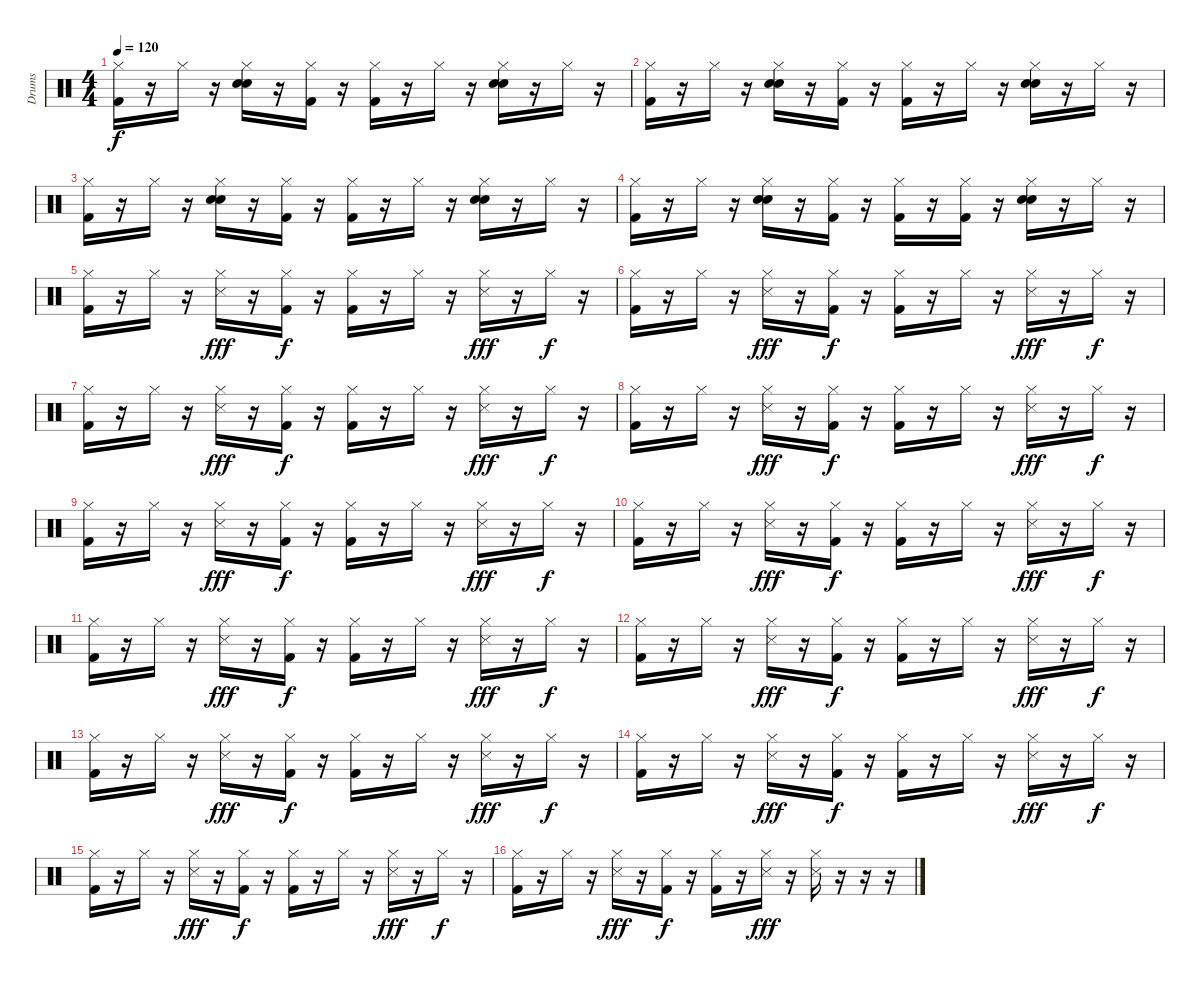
\track ("Drums" "Drums") {instrument percussion}
\staff {score}
\articulation defaults
\ts (4 4)
\tempo 120
\clef neutral
\ks c
("Hi-Hat (closed)" "Kick (hit) 2").16{dy f} r.16 "Hi-Hat (closed)".16 r.16 ("Hi-Hat (closed)" "Electric Snare (hit)" "Snare (hit) 2").16 r.16 ("Hi-Hat (closed)" "Kick (hit) 2").16 r.16 ("Hi-Hat (closed)" "Kick (hit) 2").16 r.16 "Hi-Hat (closed)".16 r.16 ("Hi-Hat (closed)" "Electric Snare (hit)" "Snare (hit) 2").16 r.16 "Hi-Hat (closed)".16 r.16 |
("Hi-Hat (closed)" "Kick (hit) 2").16 r.16 "Hi-Hat (closed)".16 r.16 ("Hi-Hat (closed)" "Electric Snare (hit)" "Snare (hit) 2").16 r.16 ("Hi-Hat (closed)" "Kick (hit) 2").16 r.16 ("Hi-Hat (closed)" "Kick (hit) 2").16 r.16 "Hi-Hat (closed)".16 r.16 ("Hi-Hat (closed)" "Electric Snare (hit)" "Snare (hit) 2").16 r.16 "Hi-Hat (closed)".16 r.16 |
("Hi-Hat (closed)" "Kick (hit) 2").16 r.16 "Hi-Hat (closed)".16 r.16 ("Hi-Hat (closed)" "Electric Snare (hit)" "Snare (hit) 2").16 r.16 ("Hi-Hat (closed)" "Kick (hit) 2").16 r.16 ("Hi-Hat (closed)" "Kick (hit) 2").16 r.16 "Hi-Hat (closed)".16 r.16 ("Hi-Hat (closed)" "Electric Snare (hit)" "Snare (hit) 2").16 r.16 "Hi-Hat (closed)".16 r.16 |
("Hi-Hat (closed)" "Kick (hit) 2").16 r.16 "Hi-Hat (closed)".16 r.16 ("Hi-Hat (closed)" "Electric Snare (hit)" "Snare (hit) 2").16 r.16 ("Hi-Hat (closed)" "Kick (hit) 2").16 r.16 ("Hi-Hat (closed)" "Kick (hit) 2").16 r.16 ("Hi-Hat (closed)" "Kick (hit) 2").16 r.16 ("Hi-Hat (closed)" "Electric Snare (hit)" "Snare (hit) 2").16 r.16 "Hi-Hat (closed)".16 r.16 |
("Hi-Hat (closed)" "Kick (hit) 2").16 r.16 "Hi-Hat (closed)".16 r.16 ("Hi-Hat (closed)" "Snare (side stick) 3").16{dy fff} r.16 ("Hi-Hat (closed)" "Kick (hit) 2").16{dy f} r.16 ("Hi-Hat (closed)" "Kick (hit) 2").16 r.16 "Hi-Hat (closed)".16 r.16 ("Hi-Hat (closed)" "Snare (side stick) 3").16{dy fff} r.16 "Hi-Hat (closed)".16{dy f} r.16 |
("Hi-Hat (closed)" "Kick (hit) 2").16 r.16 "Hi-Hat (closed)".16 r.16 ("Hi-Hat (closed)" "Snare (side stick) 3").16{dy fff} r.16 ("Hi-Hat (closed)" "Kick (hit) 2").16{dy f} r.16 ("Hi-Hat (closed)" "Kick (hit) 2").16 r.16 "Hi-Hat (closed)".16 r.16 ("Hi-Hat (closed)" "Snare (side stick) 3").16{dy fff} r.16 "Hi-Hat (closed)".16{dy f} r.16 |
("Hi-Hat (closed)" "Kick (hit) 2").16 r.16 "Hi-Hat (closed)".16 r.16 ("Hi-Hat (closed)" "Snare (side stick) 3").16{dy fff} r.16 ("Hi-Hat (closed)" "Kick (hit) 2").16{dy f} r.16 ("Hi-Hat (closed)" "Kick (hit) 2").16 r.16 "Hi-Hat (closed)".16 r.16 ("Hi-Hat (closed)" "Snare (side stick) 3").16{dy fff} r.16 "Hi-Hat (closed)".16{dy f} r.16 |
("Hi-Hat (closed)" "Kick (hit) 2").16 r.16 "Hi-Hat (closed)".16 r.16 ("Hi-Hat (closed)" "Snare (side stick) 3").16{dy fff} r.16 ("Hi-Hat (closed)" "Kick (hit) 2").16{dy f} r.16 ("Hi-Hat (closed)" "Kick (hit) 2").16 r.16 "Hi-Hat (closed)".16 r.16 ("Hi-Hat (closed)" "Snare (side stick) 3").16{dy fff} r.16 "Hi-Hat (closed)".16{dy f} r.16 |
("Hi-Hat (closed)" "Kick (hit) 2").16 r.16 "Hi-Hat (closed)".16 r.16 ("Hi-Hat (closed)" "Snare (side stick) 3").16{dy fff} r.16 ("Hi-Hat (closed)" "Kick (hit) 2").16{dy f} r.16 ("Hi-Hat (closed)" "Kick (hit) 2").16 r.16 "Hi-Hat (closed)".16 r.16 ("Hi-Hat (closed)" "Snare (side stick) 3").16{dy fff} r.16 "Hi-Hat (closed)".16{dy f} r.16 |
("Hi-Hat (closed)" "Kick (hit) 2").16 r.16 "Hi-Hat (closed)".16 r.16 ("Hi-Hat (closed)" "Snare (side stick) 3").16{dy fff} r.16 ("Hi-Hat (closed)" "Kick (hit) 2").16{dy f} r.16 ("Hi-Hat (closed)" "Kick (hit) 2").16 r.16 "Hi-Hat (closed)".16 r.16 ("Hi-Hat (closed)" "Snare (side stick) 3").16{dy fff} r.16 "Hi-Hat (closed)".16{dy f} r.16 |
("Hi-Hat (closed)" "Kick (hit) 2").16 r.16 "Hi-Hat (closed)".16 r.16 ("Hi-Hat (closed)" "Snare (side stick) 3").16{dy fff} r.16 ("Hi-Hat (closed)" "Kick (hit) 2").16{dy f} r.16 ("Hi-Hat (closed)" "Kick (hit) 2").16 r.16 "Hi-Hat (closed)".16 r.16 ("Hi-Hat (closed)" "Snare (side stick) 3").16{dy fff} r.16 "Hi-Hat (closed)".16{dy f} r.16 |
("Hi-Hat (closed)" "Kick (hit) 2").16 r.16 "Hi-Hat (closed)".16 r.16 ("Hi-Hat (closed)" "Snare (side stick) 3").16{dy fff} r.16 ("Hi-Hat (closed)" "Kick (hit) 2").16{dy f} r.16 ("Hi-Hat (closed)" "Kick (hit) 2").16 r.16 "Hi-Hat (closed)".16 r.16 ("Hi-Hat (closed)" "Snare (side stick) 3").16{dy fff} r.16 "Hi-Hat (closed)".16{dy f} r.16 |
("Hi-Hat (closed)" "Kick (hit) 2").16 r.16 "Hi-Hat (closed)".16 r.16 ("Hi-Hat (closed)" "Snare (side stick) 3").16{dy fff} r.16 ("Hi-Hat (closed)" "Kick (hit) 2").16{dy f} r.16 ("Hi-Hat (closed)" "Kick (hit) 2").16 r.16 "Hi-Hat (closed)".16 r.16 ("Hi-Hat (closed)" "Snare (side stick) 3").16{dy fff} r.16 "Hi-Hat (closed)".16{dy f} r.16 |
("Hi-Hat (closed)" "Kick (hit) 2").16 r.16 "Hi-Hat (closed)".16 r.16 ("Hi-Hat (closed)" "Snare (side stick) 3").16{dy fff} r.16 ("Hi-Hat (closed)" "Kick (hit) 2").16{dy f} r.16 ("Hi-Hat (closed)" "Kick (hit) 2").16 r.16 "Hi-Hat (closed)".16 r.16 ("Hi-Hat (closed)" "Snare (side stick) 3").16{dy fff} r.16 "Hi-Hat (closed)".16{dy f} r.16 |
("Hi-Hat (closed)" "Kick (hit) 2").16 r.16 "Hi-Hat (closed)".16 r.16 ("Hi-Hat (closed)" "Snare (side stick) 3").16{dy fff} r.16 ("Hi-Hat (closed)" "Kick (hit) 2").16{dy f} r.16 ("Hi-Hat (closed)" "Kick (hit) 2").16 r.16 "Hi-Hat (closed)".16 r.16 ("Hi-Hat (closed)" "Snare (side stick) 3").16{dy fff} r.16 "Hi-Hat (closed)".16{dy f} r.16 |
("Hi-Hat (closed)" "Kick (hit) 2").16 r.16 "Hi-Hat (closed)".16 r.16 ("Hi-Hat (closed)" "Snare (side stick) 3").16{dy fff} r.16 ("Hi-Hat (closed)" "Kick (hit) 2").16{dy f} r.16 ("Hi-Hat (closed)" "Kick (hit) 2").16 r.16 ("Hi-Hat (closed)" "Snare (side stick) 3").16{dy fff} r.16 ("Hi-Hat (closed)" "Snare (side stick) 3").16 r.16 r.16 r.16
